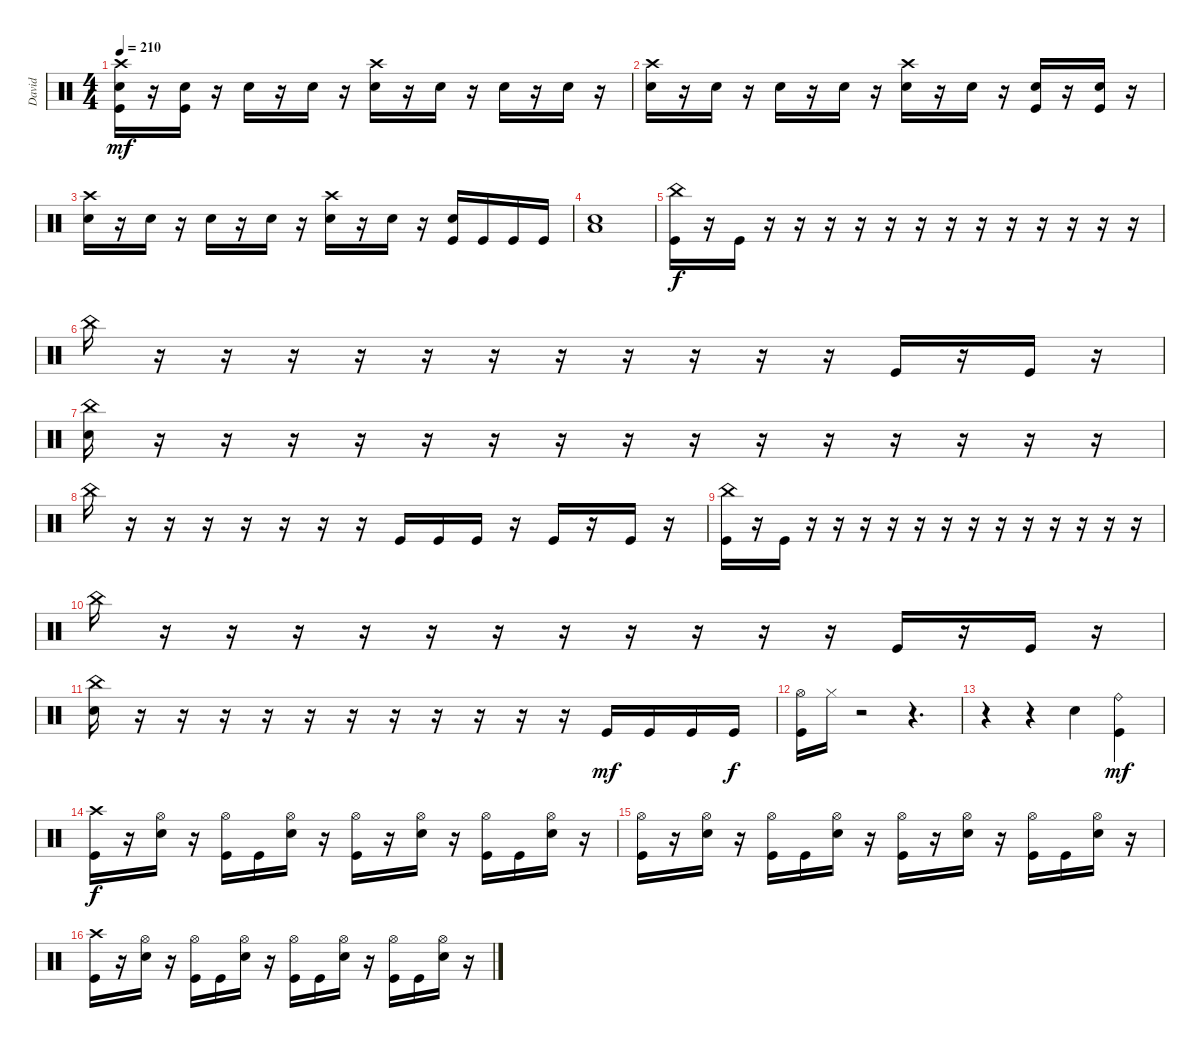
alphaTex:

\track ("David" "David") {instrument percussion}
\staff {score}
\articulation defaults
\ts (4 4)
\tempo 210
\clef neutral
\ks c
("Crash high (hit)" "Electric Snare (hit)" "Kick (hit)").16{dy mf} r.16 ("Electric Snare (hit)" "Kick (hit)").16 r.16 "Electric Snare (hit)".16 r.16 "Electric Snare (hit)".16 r.16 ("Crash high (hit)" "Electric Snare (hit)").16 r.16 "Electric Snare (hit)".16 r.16 "Electric Snare (hit)".16 r.16 "Electric Snare (hit)".16 r.16 |
("Crash high (hit)" "Electric Snare (hit)").16 r.16 "Electric Snare (hit)".16 r.16 "Electric Snare (hit)".16 r.16 "Electric Snare (hit)".16 r.16 ("Crash high (hit)" "Electric Snare (hit)").16 r.16 "Electric Snare (hit)".16 r.16 ("Electric Snare (hit)" "Kick (hit)").16 r.16 ("Electric Snare (hit)" "Kick (hit)").16 r.16 |
("Crash high (hit)" "Electric Snare (hit)").16 r.16 "Electric Snare (hit)".16 r.16 "Electric Snare (hit)".16 r.16 "Electric Snare (hit)".16 r.16 ("Crash high (hit)" "Electric Snare (hit)").16 r.16 "Electric Snare (hit)".16 r.16 ("Electric Snare (hit)" "Kick (hit)").16 "Kick (hit)".16 "Kick (hit)".16 "Kick (hit)".16 |
("Electric Snare (hit)" "Low Floor Tom (hit)").1 |
("China (hit)" "Kick (hit)").16{dy f} r.16 "Kick (hit)".16 r.16 r.16 r.16 r.16 r.16 r.16 r.16 r.16 r.16 r.16 r.16 r.16 r.16 |
"China (hit)".16 r.16 r.16 r.16 r.16 r.16 r.16 r.16 r.16 r.16 r.16 r.16 "Kick (hit)".16 r.16 "Kick (hit)".16 r.16 |
("China (hit)" "Electric Snare (hit)").16 r.16 r.16 r.16 r.16 r.16 r.16 r.16 r.16 r.16 r.16 r.16 r.16 r.16 r.16 r.16 |
"China (hit)".16 r.16 r.16 r.16 r.16 r.16 r.16 r.16 "Kick (hit)".16 "Kick (hit)".16 "Kick (hit)".16 r.16 "Kick (hit)".16 r.16 "Kick (hit)".16 r.16 |
("China (hit)" "Kick (hit)").16 r.16 "Kick (hit)".16 r.16 r.16 r.16 r.16 r.16 r.16 r.16 r.16 r.16 r.16 r.16 r.16 r.16 |
"China (hit)".16 r.16 r.16 r.16 r.16 r.16 r.16 r.16 r.16 r.16 r.16 r.16 "Kick (hit)".16 r.16 "Kick (hit)".16 r.16 |
("China (hit)" "Electric Snare (hit)").16 r.16 r.16 r.16 r.16 r.16 r.16 r.16 r.16 r.16 r.16 r.16 "Kick (hit)".16{dy mf} "Kick (hit)".16 "Kick (hit)".16 "Kick (hit)".16{dy f} |
("Hi-Hat (open)" "Kick (hit)").16 "Hi-Hat (closed)".16 r.2 r.4{d} |
r.4 r.4 "Electric Snare (hit)".4 ("Ride (bell)" "Kick (hit)").4{dy mf} |
("Crash high (hit)" "Kick (hit)").16{dy f} r.16 ("Hi-Hat (open)" "Electric Snare (hit)").16 r.16 ("Hi-Hat (open)" "Kick (hit)").16 "Kick (hit)".16 ("Hi-Hat (open)" "Electric Snare (hit)").16 r.16 ("Hi-Hat (open)" "Kick (hit)").16 r.16 ("Hi-Hat (open)" "Electric Snare (hit)").16 r.16 ("Hi-Hat (open)" "Kick (hit)").16 "Kick (hit)".16 ("Hi-Hat (open)" "Electric Snare (hit)").16 r.16 |
("Hi-Hat (open)" "Kick (hit)").16 r.16 ("Hi-Hat (open)" "Electric Snare (hit)").16 r.16 ("Hi-Hat (open)" "Kick (hit)").16 "Kick (hit)".16 ("Hi-Hat (open)" "Electric Snare (hit)").16 r.16 ("Hi-Hat (open)" "Kick (hit)").16 r.16 ("Hi-Hat (open)" "Electric Snare (hit)").16 r.16 ("Hi-Hat (open)" "Kick (hit)").16 "Kick (hit)".16 ("Hi-Hat (open)" "Electric Snare (hit)").16 r.16 |
("Crash high (hit)" "Kick (hit)").16 r.16 ("Hi-Hat (open)" "Electric Snare (hit)").16 r.16 ("Hi-Hat (open)" "Kick (hit)").16 "Kick (hit)".16 ("Hi-Hat (open)" "Electric Snare (hit)").16 r.16 ("Hi-Hat (open)" "Kick (hit)").16 "Kick (hit)".16 ("Hi-Hat (open)" "Electric Snare (hit)").16 r.16 ("Hi-Hat (open)" "Kick (hit)").16 "Kick (hit)".16 ("Hi-Hat (open)" "Electric Snare (hit)").16 r.16
